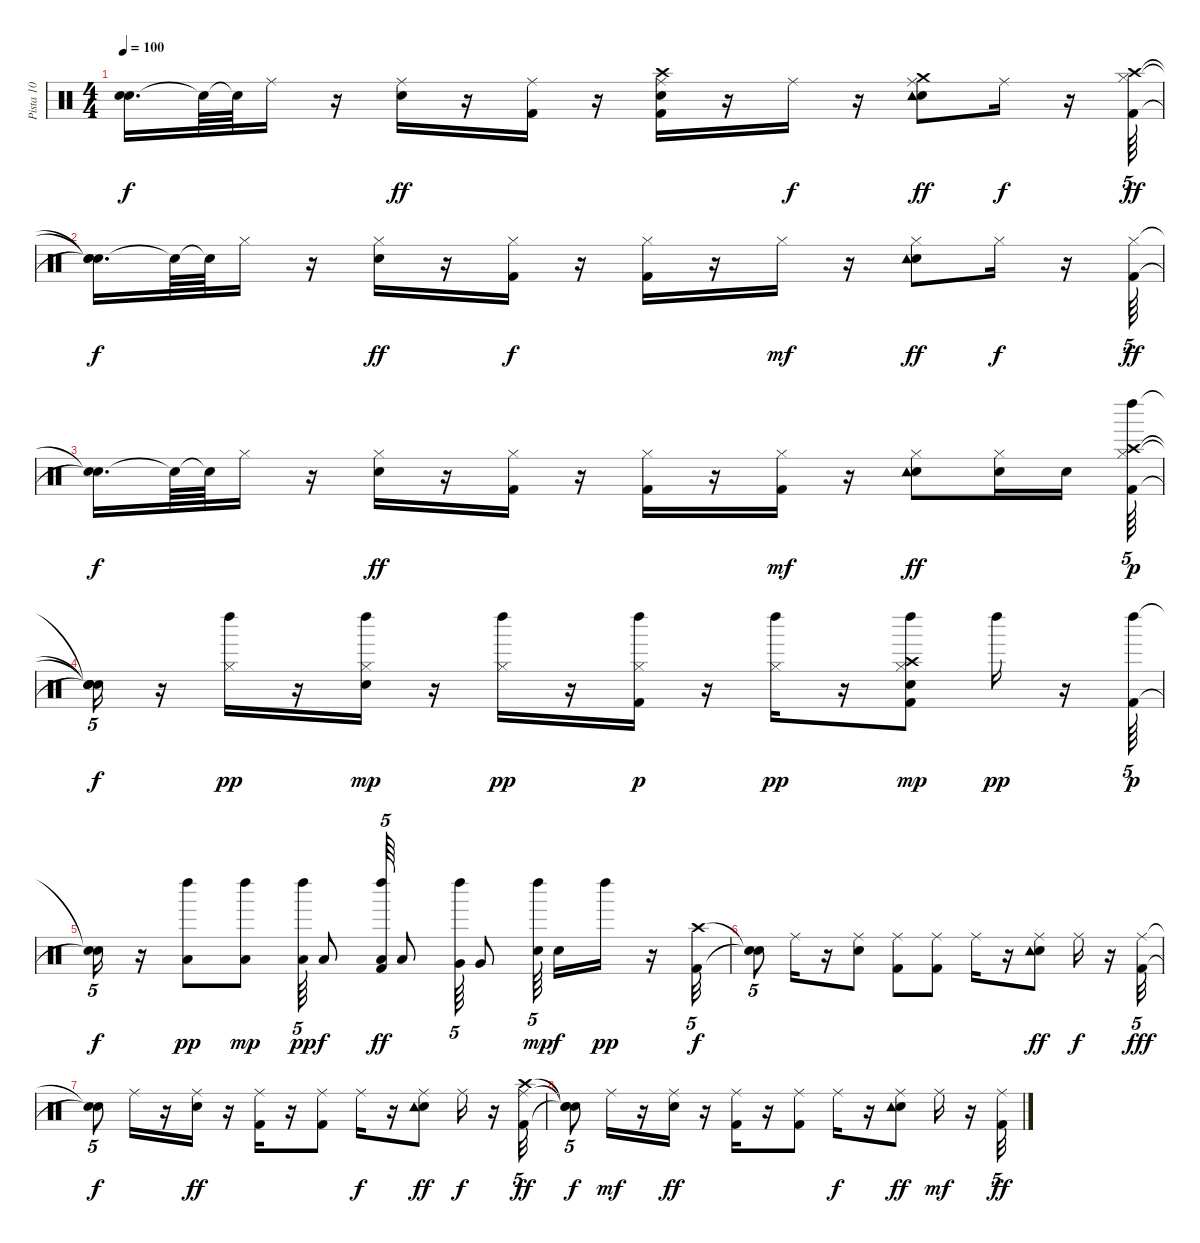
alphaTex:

\track ("Pista 10" "Pista 10") {instrument percussion}
\staff {score}
\articulation defaults
\ts (4 4)
\tempo 100
\clef neutral
\ks c
("Snare (hit)"{t} "Snare (hit)"{t}).16{d dy f} "Snare (hit)"{t}.64 "Snare (hit)"{t}.64 "Ride (middle)".16 r.16 ("Ride (middle)" "Snare (hit) 2").16{dy ff} r.16 ("Ride (middle)" "Kick (hit) 2").16 r.16 ("Crash high (hit)" "Snare (hit) 2" "Ride (middle)" "Kick (hit) 2").16 r.16 "Ride (middle)".16{dy f} r.16 ("Crash medium (hit)" "Ride (middle)" "Snare (hit) 2" "Tambourine (hit)").8{dy ff} "Ride (middle)".16{dy f} r.16 ("Crash high (hit)" "Hi-Hat (closed)" "Kick (hit) 2").64{tu (5 4) dy ff} |
("Snare (hit)"{t} "Snare (hit)"{t} "Snare (hit)"{t}).16{d dy f} "Snare (hit)"{t}.64 "Snare (hit)"{t}.64 "Hi-Hat (closed)".16 r.16 ("Hi-Hat (closed)" "Snare (hit) 2").16{dy ff} r.16 ("Hi-Hat (closed)" "Kick (hit) 2").16{dy f} r.16 ("Hi-Hat (closed)" "Kick (hit) 2").16 r.16 "Hi-Hat (closed)".16{dy mf} r.16 ("Hi-Hat (closed)" "Snare (hit) 2" "Tambourine (hit)").8{dy ff} "Hi-Hat (closed)".16{dy f} r.16 ("Hi-Hat (closed)" "Kick (hit) 2").64{tu (5 4) dy ff} |
("Snare (hit)"{t} "Snare (hit)"{t}).16{d dy f} "Snare (hit)"{t}.64 "Snare (hit)"{t}.64 "Hi-Hat (closed)".16 r.16 ("Hi-Hat (closed)" "Snare (hit) 2").16{dy ff} r.16 ("Hi-Hat (closed)" "Kick (hit) 2").16 r.16 ("Hi-Hat (closed)" "Kick (hit) 2").16 r.16 ("Kick (hit) 2" "Hi-Hat (closed)").16{dy mf} r.16 ("Hi-Hat (closed)" "Snare (hit) 2" "Tambourine (hit)").8{dy ff} ("Snare (hit) 2" "Hi-Hat (closed)").16 "Snare (hit) 2".16 ("Crash high (hit)" "Kick (hit) 2" "Hi-Hat (closed)" "Left Maraca (hit)").64{tu (5 4) dy p} |
("Snare (hit)"{t} "Snare (hit)"{t} "Snare (hit)"{t} "Snare (hit)"{t}).16{tu (5 4) dy f} r.16 ("Hi-Hat (closed)" "Left Maraca (hit)").16{dy pp} r.16 ("Snare (hit) 2" "Hi-Hat (closed)" "Left Maraca (hit)").16{dy mp} r.16 ("Hi-Hat (closed)" "Left Maraca (hit)").16{dy pp} r.16 ("Kick (hit) 2" "Hi-Hat (closed)" "Left Maraca (hit)").16{dy p} r.16 ("Hi-Hat (closed)" "Left Maraca (hit)").16{dy pp} r.16 ("Kick (hit) 2" "Crash high (hit)" "Snare (hit) 2" "Hi-Hat (closed)" "Left Maraca (hit)").8{dy mp} "Left Maraca (hit)".16{dy pp} r.16 ("Kick (hit) 2" "Left Maraca (hit)").64{tu (5 4) dy p} |
("Snare (hit)"{t} "Snare (hit)"{t}).16{tu (5 4) dy f} r.16 ("Low Tom (hit)" "Left Maraca (hit)").8{dy pp} ("Low Tom (hit)" "Left Maraca (hit)").8{dy mp} ("Left Maraca (hit)" "Low Tom (hit)").64{tu (5 4) dy pp} "Low Tom (hit)".8{dy f} ("Kick (hit) 2" "Left Maraca (hit)" "Low Tom (hit)").64{tu (5 4) dy ff} "Low Tom (hit)".8 ("Left Maraca (hit)" "Very Low Tom (hit)").64{tu (5 4)} "Very Low Tom (hit)".8 ("Left Maraca (hit)" "Snare (hit) 2").64{tu (5 4) dy mp beam splitsecondary} "Snare (hit) 2".16{dy f} "Left Maraca (hit)".16{dy pp} r.16 ("Crash high (hit)" "Kick (hit) 2").32{tu (5 4) dy f} |
("Snare (hit)"{t} "Snare (hit)"{t}).8{tu (5 4)} "Ride (middle)".16 r.16 ("Snare (hit) 2" "Ride (middle)").8 ("Kick (hit) 2" "Ride (middle)").8 ("Kick (hit) 2" "Ride (middle)").8 "Ride (middle)".16 r.16 ("Ride (middle)" "Snare (hit) 2" "Tambourine (hit)").8{dy ff} "Ride (middle)".16{dy f} r.16 ("Ride (middle)" "Kick (hit) 2").32{tu (5 4) dy fff} |
("Snare (hit)"{t} "Snare (hit)"{t}).8{tu (5 4) dy f} "Ride (middle)".16 r.16 ("Ride (middle)" "Snare (hit) 2").16{dy ff} r.16 ("Ride (middle)" "Kick (hit) 2").16 r.16 ("Ride (middle)" "Kick (hit) 2").8 "Ride (middle)".16{dy f} r.16 ("Ride (middle)" "Snare (hit) 2" "Tambourine (hit)").8{dy ff} "Ride (middle)".16{dy f} r.16 ("Crash high (hit)" "Ride (middle)" "Kick (hit) 2").32{tu (5 4) dy ff} |
("Snare (hit)"{t} "Snare (hit)"{t} "Snare (hit)"{t}).8{tu (5 4) dy f} "Ride (middle)".16{dy mf} r.16 ("Ride (middle)" "Snare (hit) 2").16{dy ff} r.16 ("Ride (middle)" "Kick (hit) 2").16 r.16 ("Ride (middle)" "Kick (hit) 2").8 "Ride (middle)".16{dy f} r.16 ("Ride (middle)" "Snare (hit) 2" "Tambourine (hit)").8{dy ff} "Ride (middle)".16{dy mf} r.16 ("Ride (middle)" "Kick (hit) 2").32{tu (5 4) dy ff}
